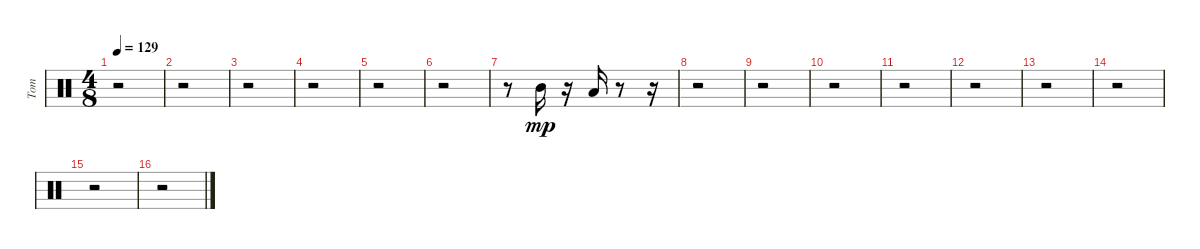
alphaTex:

\track ("Tom" "Tom") {instrument percussion}
\staff {score}
\articulation defaults
\ts (4 8)
\tempo 129
\clef neutral
\ks c
r.2{dy mp} |
r.2 |
r.2 |
r.2 |
r.2 |
r.2 |
r.8 "Mid Tom (hit)".16 r.16 "Low Tom (hit)".16 r.8 r.16 |
r.2 |
r.2 |
r.2 |
r.2 |
r.2 |
r.2 |
r.2 |
r.2 |
r.2
